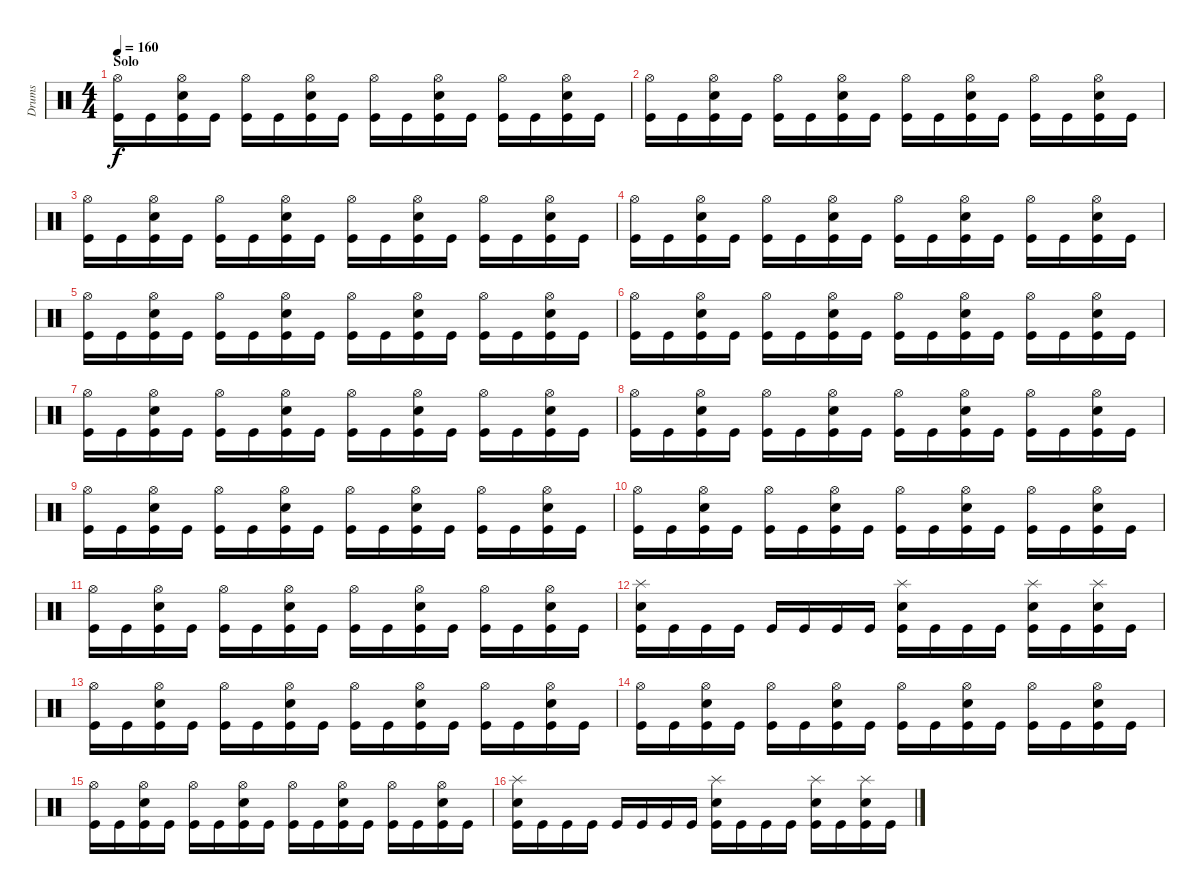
\track ("Drums" "Drums") {instrument percussion}
\staff {score}
\articulation defaults
\ts (4 4)
\section ("" "Solo")
\tempo 160
\clef neutral
\ks c
("Kick (hit)" "Hi-Hat (open)").16{dy f} "Kick (hit)".16 ("Electric Snare (hit)" "Kick (hit)" "Hi-Hat (open)").16 "Kick (hit)".16 ("Kick (hit)" "Hi-Hat (open)").16 "Kick (hit)".16 ("Electric Snare (hit)" "Kick (hit)" "Hi-Hat (open)").16 "Kick (hit)".16 ("Kick (hit)" "Hi-Hat (open)").16 "Kick (hit)".16 ("Electric Snare (hit)" "Kick (hit)" "Hi-Hat (open)").16 "Kick (hit)".16 ("Kick (hit)" "Hi-Hat (open)").16 "Kick (hit)".16 ("Electric Snare (hit)" "Kick (hit)" "Hi-Hat (open)").16 "Kick (hit)".16 |
("Kick (hit)" "Hi-Hat (open)").16 "Kick (hit)".16 ("Electric Snare (hit)" "Kick (hit)" "Hi-Hat (open)").16 "Kick (hit)".16 ("Kick (hit)" "Hi-Hat (open)").16 "Kick (hit)".16 ("Electric Snare (hit)" "Kick (hit)" "Hi-Hat (open)").16 "Kick (hit)".16 ("Kick (hit)" "Hi-Hat (open)").16 "Kick (hit)".16 ("Electric Snare (hit)" "Kick (hit)" "Hi-Hat (open)").16 "Kick (hit)".16 ("Kick (hit)" "Hi-Hat (open)").16 "Kick (hit)".16 ("Electric Snare (hit)" "Kick (hit)" "Hi-Hat (open)").16 "Kick (hit)".16 |
("Kick (hit)" "Hi-Hat (open)").16 "Kick (hit)".16 ("Electric Snare (hit)" "Kick (hit)" "Hi-Hat (open)").16 "Kick (hit)".16 ("Kick (hit)" "Hi-Hat (open)").16 "Kick (hit)".16 ("Electric Snare (hit)" "Kick (hit)" "Hi-Hat (open)").16 "Kick (hit)".16 ("Kick (hit)" "Hi-Hat (open)").16 "Kick (hit)".16 ("Electric Snare (hit)" "Kick (hit)" "Hi-Hat (open)").16 "Kick (hit)".16 ("Kick (hit)" "Hi-Hat (open)").16 "Kick (hit)".16 ("Electric Snare (hit)" "Kick (hit)" "Hi-Hat (open)").16 "Kick (hit)".16 |
("Kick (hit)" "Hi-Hat (open)").16 "Kick (hit)".16 ("Electric Snare (hit)" "Kick (hit)" "Hi-Hat (open)").16 "Kick (hit)".16 ("Kick (hit)" "Hi-Hat (open)").16 "Kick (hit)".16 ("Electric Snare (hit)" "Kick (hit)" "Hi-Hat (open)").16 "Kick (hit)".16 ("Kick (hit)" "Hi-Hat (open)").16 "Kick (hit)".16 ("Electric Snare (hit)" "Kick (hit)" "Hi-Hat (open)").16 "Kick (hit)".16 ("Kick (hit)" "Hi-Hat (open)").16 "Kick (hit)".16 ("Electric Snare (hit)" "Kick (hit)" "Hi-Hat (open)").16 "Kick (hit)".16 |
("Kick (hit)" "Hi-Hat (open)").16 "Kick (hit)".16 ("Electric Snare (hit)" "Kick (hit)" "Hi-Hat (open)").16 "Kick (hit)".16 ("Kick (hit)" "Hi-Hat (open)").16 "Kick (hit)".16 ("Electric Snare (hit)" "Kick (hit)" "Hi-Hat (open)").16 "Kick (hit)".16 ("Kick (hit)" "Hi-Hat (open)").16 "Kick (hit)".16 ("Electric Snare (hit)" "Kick (hit)" "Hi-Hat (open)").16 "Kick (hit)".16 ("Kick (hit)" "Hi-Hat (open)").16 "Kick (hit)".16 ("Electric Snare (hit)" "Kick (hit)" "Hi-Hat (open)").16 "Kick (hit)".16 |
("Kick (hit)" "Hi-Hat (open)").16 "Kick (hit)".16 ("Electric Snare (hit)" "Kick (hit)" "Hi-Hat (open)").16 "Kick (hit)".16 ("Kick (hit)" "Hi-Hat (open)").16 "Kick (hit)".16 ("Electric Snare (hit)" "Kick (hit)" "Hi-Hat (open)").16 "Kick (hit)".16 ("Kick (hit)" "Hi-Hat (open)").16 "Kick (hit)".16 ("Electric Snare (hit)" "Kick (hit)" "Hi-Hat (open)").16 "Kick (hit)".16 ("Kick (hit)" "Hi-Hat (open)").16 "Kick (hit)".16 ("Electric Snare (hit)" "Kick (hit)" "Hi-Hat (open)").16 "Kick (hit)".16 |
("Kick (hit)" "Hi-Hat (open)").16 "Kick (hit)".16 ("Electric Snare (hit)" "Kick (hit)" "Hi-Hat (open)").16 "Kick (hit)".16 ("Kick (hit)" "Hi-Hat (open)").16 "Kick (hit)".16 ("Electric Snare (hit)" "Kick (hit)" "Hi-Hat (open)").16 "Kick (hit)".16 ("Kick (hit)" "Hi-Hat (open)").16 "Kick (hit)".16 ("Electric Snare (hit)" "Kick (hit)" "Hi-Hat (open)").16 "Kick (hit)".16 ("Kick (hit)" "Hi-Hat (open)").16 "Kick (hit)".16 ("Electric Snare (hit)" "Kick (hit)" "Hi-Hat (open)").16 "Kick (hit)".16 |
("Kick (hit)" "Hi-Hat (open)").16 "Kick (hit)".16 ("Electric Snare (hit)" "Kick (hit)" "Hi-Hat (open)").16 "Kick (hit)".16 ("Kick (hit)" "Hi-Hat (open)").16 "Kick (hit)".16 ("Electric Snare (hit)" "Kick (hit)" "Hi-Hat (open)").16 "Kick (hit)".16 ("Kick (hit)" "Hi-Hat (open)").16 "Kick (hit)".16 ("Electric Snare (hit)" "Kick (hit)" "Hi-Hat (open)").16 "Kick (hit)".16 ("Kick (hit)" "Hi-Hat (open)").16 "Kick (hit)".16 ("Electric Snare (hit)" "Kick (hit)" "Hi-Hat (open)").16 "Kick (hit)".16 |
("Kick (hit)" "Hi-Hat (open)").16 "Kick (hit)".16 ("Electric Snare (hit)" "Kick (hit)" "Hi-Hat (open)").16 "Kick (hit)".16 ("Kick (hit)" "Hi-Hat (open)").16 "Kick (hit)".16 ("Electric Snare (hit)" "Kick (hit)" "Hi-Hat (open)").16 "Kick (hit)".16 ("Kick (hit)" "Hi-Hat (open)").16 "Kick (hit)".16 ("Electric Snare (hit)" "Kick (hit)" "Hi-Hat (open)").16 "Kick (hit)".16 ("Kick (hit)" "Hi-Hat (open)").16 "Kick (hit)".16 ("Electric Snare (hit)" "Kick (hit)" "Hi-Hat (open)").16 "Kick (hit)".16 |
("Kick (hit)" "Hi-Hat (open)").16 "Kick (hit)".16 ("Electric Snare (hit)" "Kick (hit)" "Hi-Hat (open)").16 "Kick (hit)".16 ("Kick (hit)" "Hi-Hat (open)").16 "Kick (hit)".16 ("Electric Snare (hit)" "Kick (hit)" "Hi-Hat (open)").16 "Kick (hit)".16 ("Kick (hit)" "Hi-Hat (open)").16 "Kick (hit)".16 ("Electric Snare (hit)" "Kick (hit)" "Hi-Hat (open)").16 "Kick (hit)".16 ("Kick (hit)" "Hi-Hat (open)").16 "Kick (hit)".16 ("Electric Snare (hit)" "Kick (hit)" "Hi-Hat (open)").16 "Kick (hit)".16 |
("Kick (hit)" "Hi-Hat (open)").16 "Kick (hit)".16 ("Electric Snare (hit)" "Kick (hit)" "Hi-Hat (open)").16 "Kick (hit)".16 ("Kick (hit)" "Hi-Hat (open)").16 "Kick (hit)".16 ("Electric Snare (hit)" "Kick (hit)" "Hi-Hat (open)").16 "Kick (hit)".16 ("Kick (hit)" "Hi-Hat (open)").16 "Kick (hit)".16 ("Electric Snare (hit)" "Kick (hit)" "Hi-Hat (open)").16 "Kick (hit)".16 ("Kick (hit)" "Hi-Hat (open)").16 "Kick (hit)".16 ("Electric Snare (hit)" "Kick (hit)" "Hi-Hat (open)").16 "Kick (hit)".16 |
("Electric Snare (hit)" "Kick (hit)" "Splash (hit)").16 "Kick (hit)".16 "Kick (hit)".16 "Kick (hit)".16 "Kick (hit)".16 "Kick (hit)".16 "Kick (hit)".16 "Kick (hit)".16 ("Electric Snare (hit)" "Kick (hit)" "Splash (hit)").16 "Kick (hit)".16 "Kick (hit)".16 "Kick (hit)".16 ("Electric Snare (hit)" "Kick (hit)" "Splash (hit)").16 "Kick (hit)".16 ("Electric Snare (hit)" "Kick (hit)" "Splash (hit)").16 "Kick (hit)".16 |
("Kick (hit)" "Hi-Hat (open)").16 "Kick (hit)".16 ("Electric Snare (hit)" "Kick (hit)" "Hi-Hat (open)").16 "Kick (hit)".16 ("Kick (hit)" "Hi-Hat (open)").16 "Kick (hit)".16 ("Electric Snare (hit)" "Kick (hit)" "Hi-Hat (open)").16 "Kick (hit)".16 ("Kick (hit)" "Hi-Hat (open)").16 "Kick (hit)".16 ("Electric Snare (hit)" "Kick (hit)" "Hi-Hat (open)").16 "Kick (hit)".16 ("Kick (hit)" "Hi-Hat (open)").16 "Kick (hit)".16 ("Electric Snare (hit)" "Kick (hit)" "Hi-Hat (open)").16 "Kick (hit)".16 |
("Kick (hit)" "Hi-Hat (open)").16 "Kick (hit)".16 ("Electric Snare (hit)" "Kick (hit)" "Hi-Hat (open)").16 "Kick (hit)".16 ("Kick (hit)" "Hi-Hat (open)").16 "Kick (hit)".16 ("Electric Snare (hit)" "Kick (hit)" "Hi-Hat (open)").16 "Kick (hit)".16 ("Kick (hit)" "Hi-Hat (open)").16 "Kick (hit)".16 ("Electric Snare (hit)" "Kick (hit)" "Hi-Hat (open)").16 "Kick (hit)".16 ("Kick (hit)" "Hi-Hat (open)").16 "Kick (hit)".16 ("Electric Snare (hit)" "Kick (hit)" "Hi-Hat (open)").16 "Kick (hit)".16 |
("Kick (hit)" "Hi-Hat (open)").16 "Kick (hit)".16 ("Electric Snare (hit)" "Kick (hit)" "Hi-Hat (open)").16 "Kick (hit)".16 ("Kick (hit)" "Hi-Hat (open)").16 "Kick (hit)".16 ("Electric Snare (hit)" "Kick (hit)" "Hi-Hat (open)").16 "Kick (hit)".16 ("Kick (hit)" "Hi-Hat (open)").16 "Kick (hit)".16 ("Electric Snare (hit)" "Kick (hit)" "Hi-Hat (open)").16 "Kick (hit)".16 ("Kick (hit)" "Hi-Hat (open)").16 "Kick (hit)".16 ("Electric Snare (hit)" "Kick (hit)" "Hi-Hat (open)").16 "Kick (hit)".16 |
("Electric Snare (hit)" "Kick (hit)" "Splash (hit)").16 "Kick (hit)".16 "Kick (hit)".16 "Kick (hit)".16 "Kick (hit)".16 "Kick (hit)".16 "Kick (hit)".16 "Kick (hit)".16 ("Electric Snare (hit)" "Kick (hit)" "Splash (hit)").16 "Kick (hit)".16 "Kick (hit)".16 "Kick (hit)".16 ("Electric Snare (hit)" "Kick (hit)" "Splash (hit)").16 "Kick (hit)".16 ("Electric Snare (hit)" "Kick (hit)" "Splash (hit)").16 "Kick (hit)".16
